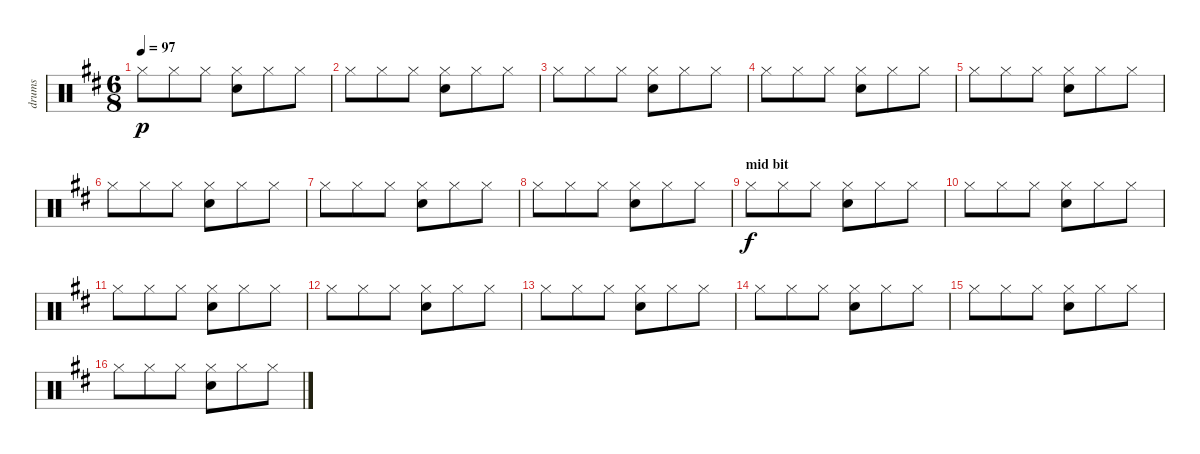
\track ("drums" "drums") {instrument percussion}
\staff {score}
\articulation defaults
\ts (6 8)
\tempo 97
\clef neutral
\ks d "Hi-Hat (closed)".8{dy p} "Hi-Hat (closed)".8 "Hi-Hat (closed)".8
("Hi-Hat (closed)" "Electric Snare (hit)").8 "Hi-Hat (closed)".8 "Hi-Hat (closed)".8 |
"Hi-Hat (closed)".8 "Hi-Hat (closed)".8 "Hi-Hat (closed)".8 ("Hi-Hat (closed)" "Electric Snare (hit)").8 "Hi-Hat (closed)".8 "Hi-Hat (closed)".8 |
"Hi-Hat (closed)".8 "Hi-Hat (closed)".8 "Hi-Hat (closed)".8 ("Hi-Hat (closed)" "Electric Snare (hit)").8 "Hi-Hat (closed)".8 "Hi-Hat (closed)".8 |
"Hi-Hat (closed)".8 "Hi-Hat (closed)".8 "Hi-Hat (closed)".8 ("Hi-Hat (closed)" "Electric Snare (hit)").8 "Hi-Hat (closed)".8 "Hi-Hat (closed)".8 |
"Hi-Hat (closed)".8 "Hi-Hat (closed)".8 "Hi-Hat (closed)".8 ("Hi-Hat (closed)" "Electric Snare (hit)").8 "Hi-Hat (closed)".8 "Hi-Hat (closed)".8 |
"Hi-Hat (closed)".8 "Hi-Hat (closed)".8 "Hi-Hat (closed)".8 ("Hi-Hat (closed)" "Electric Snare (hit)").8 "Hi-Hat (closed)".8 "Hi-Hat (closed)".8 |
"Hi-Hat (closed)".8 "Hi-Hat (closed)".8 "Hi-Hat (closed)".8 ("Hi-Hat (closed)" "Electric Snare (hit)").8 "Hi-Hat (closed)".8 "Hi-Hat (closed)".8 |
"Hi-Hat (closed)".8 "Hi-Hat (closed)".8 "Hi-Hat (closed)".8 ("Hi-Hat (closed)" "Electric Snare (hit)").8 "Hi-Hat (closed)".8 "Hi-Hat (closed)".8 |
\section ("" "mid bit")
"Hi-Hat (closed)".8{dy f} "Hi-Hat (closed)".8 "Hi-Hat (closed)".8 ("Hi-Hat (closed)" "Electric Snare (hit)").8 "Hi-Hat (closed)".8 "Hi-Hat (closed)".8 |
"Hi-Hat (closed)".8 "Hi-Hat (closed)".8 "Hi-Hat (closed)".8 ("Hi-Hat (closed)" "Electric Snare (hit)").8 "Hi-Hat (closed)".8 "Hi-Hat (closed)".8 |
"Hi-Hat (closed)".8 "Hi-Hat (closed)".8 "Hi-Hat (closed)".8 ("Hi-Hat (closed)" "Electric Snare (hit)").8 "Hi-Hat (closed)".8 "Hi-Hat (closed)".8 |
"Hi-Hat (closed)".8 "Hi-Hat (closed)".8 "Hi-Hat (closed)".8 ("Hi-Hat (closed)" "Electric Snare (hit)").8 "Hi-Hat (closed)".8 "Hi-Hat (closed)".8 |
"Hi-Hat (closed)".8 "Hi-Hat (closed)".8 "Hi-Hat (closed)".8 ("Hi-Hat (closed)" "Electric Snare (hit)").8 "Hi-Hat (closed)".8 "Hi-Hat (closed)".8 |
"Hi-Hat (closed)".8 "Hi-Hat (closed)".8 "Hi-Hat (closed)".8 ("Hi-Hat (closed)" "Electric Snare (hit)").8 "Hi-Hat (closed)".8 "Hi-Hat (closed)".8 |
"Hi-Hat (closed)".8 "Hi-Hat (closed)".8 "Hi-Hat (closed)".8 ("Hi-Hat (closed)" "Electric Snare (hit)").8 "Hi-Hat (closed)".8 "Hi-Hat (closed)".8 |
"Hi-Hat (closed)".8 "Hi-Hat (closed)".8 "Hi-Hat (closed)".8 ("Hi-Hat (closed)" "Electric Snare (hit)").8 "Hi-Hat (closed)".8 "Hi-Hat (closed)".8
